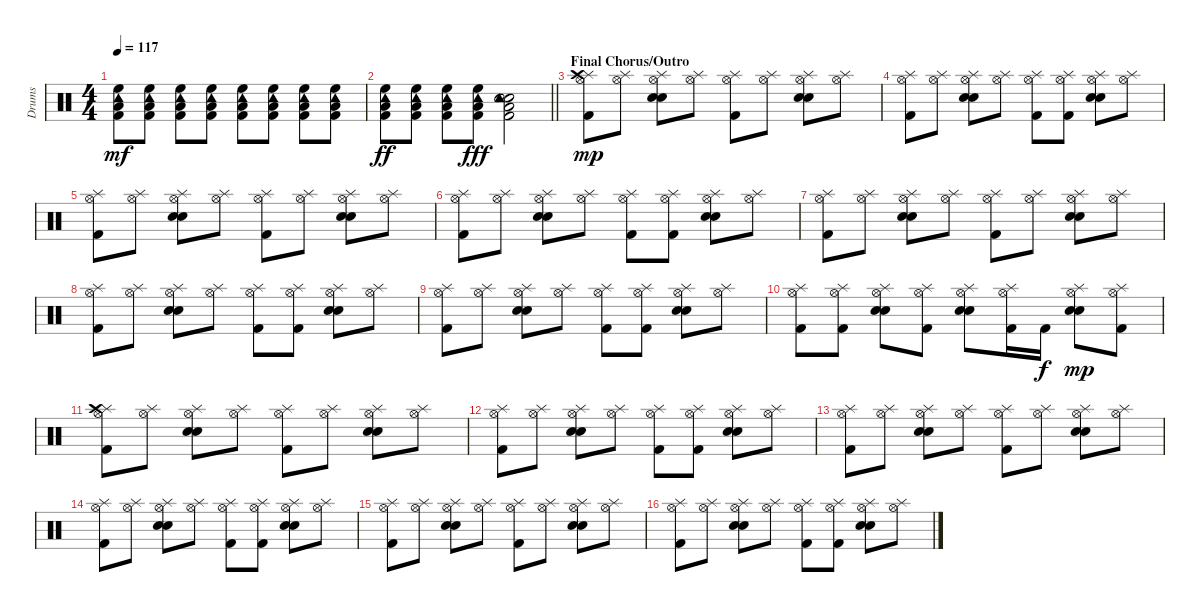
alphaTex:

\track ("Drums" "Drums") {instrument percussion}
\staff {score}
\articulation defaults
\ts (4 4)
\tempo 117
\clef neutral
\ks c
("High Floor Tom (hit)" "Tambourine (hit)" "Low Tom (hit)" "Kick (hit) 2").8{dy mf} ("High Floor Tom (hit)" "Tambourine (hit)" "Low Tom (hit)" "Kick (hit) 2").8 ("High Floor Tom (hit)" "Tambourine (hit)" "Low Tom (hit)" "Kick (hit) 2").8 ("High Floor Tom (hit)" "Tambourine (hit)" "Low Tom (hit)" "Kick (hit) 2").8 ("High Floor Tom (hit)" "Tambourine (hit)" "Low Tom (hit)" "Kick (hit) 2").8 ("High Floor Tom (hit)" "Tambourine (hit)" "Low Tom (hit)" "Kick (hit) 2").8 ("High Floor Tom (hit)" "Tambourine (hit)" "Low Tom (hit)" "Kick (hit) 2").8 ("High Floor Tom (hit)" "Tambourine (hit)" "Low Tom (hit)" "Kick (hit) 2").8 |
\barLineRight lightlight
("High Floor Tom (hit)" "Tambourine (hit)" "Low Tom (hit)" "Kick (hit) 2").8{dy ff} ("High Floor Tom (hit)" "Tambourine (hit)" "Low Tom (hit)" "Kick (hit) 2").8 ("High Floor Tom (hit)" "Tambourine (hit)" "Low Tom (hit)" "Kick (hit) 2").8 ("High Floor Tom (hit)" "Tambourine (hit)" "Low Tom (hit)" "Kick (hit) 2").8{dy fff} ("Snare (hit) 2" "Tambourine (hit)" "Low Tom (hit)" "Electric Snare (hit)" "Kick (hit) 2").2 |
\section ("" "Final Chorus/Outro")
("Splash (hit)" "Crash high (hit)" "Hi-Hat (open)" "Kick (hit) 2").8{dy mp} ("Splash (hit)" "Hi-Hat (open)").8 ("Splash (hit)" "Hi-Hat (open)" "Electric Snare (hit)" "Snare (hit) 2").8 ("Splash (hit)" "Hi-Hat (open)").8 ("Splash (hit)" "Hi-Hat (open)" "Kick (hit) 2").8 ("Splash (hit)" "Hi-Hat (open)").8 ("Splash (hit)" "Hi-Hat (open)" "Electric Snare (hit)" "Snare (hit) 2").8 ("Splash (hit)" "Hi-Hat (open)").8 |
("Splash (hit)" "Hi-Hat (open)" "Kick (hit) 2").8 ("Splash (hit)" "Hi-Hat (open)").8 ("Splash (hit)" "Hi-Hat (open)" "Electric Snare (hit)" "Snare (hit) 2").8 ("Splash (hit)" "Hi-Hat (open)").8 ("Splash (hit)" "Hi-Hat (open)" "Kick (hit) 2").8 ("Splash (hit)" "Hi-Hat (open)" "Kick (hit) 2").8 ("Splash (hit)" "Hi-Hat (open)" "Electric Snare (hit)" "Snare (hit) 2").8 ("Splash (hit)" "Hi-Hat (open)").8 |
("Splash (hit)" "Hi-Hat (open)" "Kick (hit) 2").8 ("Splash (hit)" "Hi-Hat (open)").8 ("Splash (hit)" "Hi-Hat (open)" "Electric Snare (hit)" "Snare (hit) 2").8 ("Splash (hit)" "Hi-Hat (open)").8 ("Splash (hit)" "Hi-Hat (open)" "Kick (hit) 2").8 ("Splash (hit)" "Hi-Hat (open)").8 ("Splash (hit)" "Hi-Hat (open)" "Electric Snare (hit)" "Snare (hit) 2").8 ("Splash (hit)" "Hi-Hat (open)").8 |
("Splash (hit)" "Hi-Hat (open)" "Kick (hit) 2").8 ("Splash (hit)" "Hi-Hat (open)").8 ("Splash (hit)" "Hi-Hat (open)" "Electric Snare (hit)" "Snare (hit) 2").8 ("Splash (hit)" "Hi-Hat (open)").8 ("Splash (hit)" "Hi-Hat (open)" "Kick (hit) 2").8 ("Splash (hit)" "Hi-Hat (open)" "Kick (hit) 2").8 ("Splash (hit)" "Hi-Hat (open)" "Electric Snare (hit)" "Snare (hit) 2").8 ("Splash (hit)" "Hi-Hat (open)").8 |
("Splash (hit)" "Hi-Hat (open)" "Kick (hit) 2").8 ("Splash (hit)" "Hi-Hat (open)").8 ("Splash (hit)" "Hi-Hat (open)" "Electric Snare (hit)" "Snare (hit) 2").8 ("Splash (hit)" "Hi-Hat (open)").8 ("Splash (hit)" "Hi-Hat (open)" "Kick (hit) 2").8 ("Splash (hit)" "Hi-Hat (open)").8 ("Splash (hit)" "Hi-Hat (open)" "Electric Snare (hit)" "Snare (hit) 2").8 ("Splash (hit)" "Hi-Hat (open)").8 |
("Splash (hit)" "Hi-Hat (open)" "Kick (hit) 2").8 ("Splash (hit)" "Hi-Hat (open)").8 ("Splash (hit)" "Hi-Hat (open)" "Electric Snare (hit)" "Snare (hit) 2").8 ("Splash (hit)" "Hi-Hat (open)").8 ("Splash (hit)" "Hi-Hat (open)" "Kick (hit) 2").8 ("Splash (hit)" "Hi-Hat (open)" "Kick (hit) 2").8 ("Splash (hit)" "Hi-Hat (open)" "Electric Snare (hit)" "Snare (hit) 2").8 ("Splash (hit)" "Hi-Hat (open)").8 |
("Splash (hit)" "Hi-Hat (open)" "Kick (hit) 2").8 ("Splash (hit)" "Hi-Hat (open)").8 ("Splash (hit)" "Hi-Hat (open)" "Electric Snare (hit)" "Snare (hit) 2").8 ("Splash (hit)" "Hi-Hat (open)").8 ("Splash (hit)" "Hi-Hat (open)" "Kick (hit) 2").8 ("Splash (hit)" "Hi-Hat (open)" "Kick (hit) 2").8 ("Splash (hit)" "Hi-Hat (open)" "Electric Snare (hit)" "Snare (hit) 2").8 ("Splash (hit)" "Hi-Hat (open)").8 |
("Splash (hit)" "Hi-Hat (open)" "Kick (hit) 2").8 ("Splash (hit)" "Hi-Hat (open)" "Kick (hit) 2").8 ("Splash (hit)" "Hi-Hat (open)" "Electric Snare (hit)" "Snare (hit) 2").8 ("Splash (hit)" "Hi-Hat (open)" "Kick (hit) 2").8 ("Splash (hit)" "Hi-Hat (open)" "Electric Snare (hit)" "Snare (hit) 2").8 ("Splash (hit)" "Hi-Hat (open)" "Kick (hit) 2").16 "Kick (hit) 2".16{dy f} ("Splash (hit)" "Hi-Hat (open)" "Electric Snare (hit)" "Snare (hit) 2").8{dy mp} ("Splash (hit)" "Hi-Hat (open)" "Kick (hit) 2").8 |
("Splash (hit)" "Crash high (hit)" "Hi-Hat (open)" "Kick (hit) 2").8 ("Splash (hit)" "Hi-Hat (open)").8 ("Splash (hit)" "Hi-Hat (open)" "Electric Snare (hit)" "Snare (hit) 2").8 ("Splash (hit)" "Hi-Hat (open)").8 ("Splash (hit)" "Hi-Hat (open)" "Kick (hit) 2").8 ("Splash (hit)" "Hi-Hat (open)").8 ("Splash (hit)" "Hi-Hat (open)" "Electric Snare (hit)" "Snare (hit) 2").8 ("Splash (hit)" "Hi-Hat (open)").8 |
("Splash (hit)" "Hi-Hat (open)" "Kick (hit) 2").8 ("Splash (hit)" "Hi-Hat (open)").8 ("Splash (hit)" "Hi-Hat (open)" "Electric Snare (hit)" "Snare (hit) 2").8 ("Splash (hit)" "Hi-Hat (open)").8 ("Splash (hit)" "Hi-Hat (open)" "Kick (hit) 2").8 ("Splash (hit)" "Hi-Hat (open)" "Kick (hit) 2").8 ("Splash (hit)" "Hi-Hat (open)" "Electric Snare (hit)" "Snare (hit) 2").8 ("Splash (hit)" "Hi-Hat (open)").8 |
("Splash (hit)" "Hi-Hat (open)" "Kick (hit) 2").8 ("Splash (hit)" "Hi-Hat (open)").8 ("Splash (hit)" "Hi-Hat (open)" "Electric Snare (hit)" "Snare (hit) 2").8 ("Splash (hit)" "Hi-Hat (open)").8 ("Splash (hit)" "Hi-Hat (open)" "Kick (hit) 2").8 ("Splash (hit)" "Hi-Hat (open)").8 ("Splash (hit)" "Hi-Hat (open)" "Electric Snare (hit)" "Snare (hit) 2").8 ("Splash (hit)" "Hi-Hat (open)").8 |
("Splash (hit)" "Hi-Hat (open)" "Kick (hit) 2").8 ("Splash (hit)" "Hi-Hat (open)").8 ("Splash (hit)" "Hi-Hat (open)" "Electric Snare (hit)" "Snare (hit) 2").8 ("Splash (hit)" "Hi-Hat (open)").8 ("Splash (hit)" "Hi-Hat (open)" "Kick (hit) 2").8 ("Splash (hit)" "Hi-Hat (open)" "Kick (hit) 2").8 ("Splash (hit)" "Hi-Hat (open)" "Electric Snare (hit)" "Snare (hit) 2").8 ("Splash (hit)" "Hi-Hat (open)").8 |
("Splash (hit)" "Hi-Hat (open)" "Kick (hit) 2").8 ("Splash (hit)" "Hi-Hat (open)").8 ("Splash (hit)" "Hi-Hat (open)" "Electric Snare (hit)" "Snare (hit) 2").8 ("Splash (hit)" "Hi-Hat (open)").8 ("Splash (hit)" "Hi-Hat (open)" "Kick (hit) 2").8 ("Splash (hit)" "Hi-Hat (open)").8 ("Splash (hit)" "Hi-Hat (open)" "Electric Snare (hit)" "Snare (hit) 2").8 ("Splash (hit)" "Hi-Hat (open)").8 |
("Splash (hit)" "Hi-Hat (open)" "Kick (hit) 2").8 ("Splash (hit)" "Hi-Hat (open)").8 ("Splash (hit)" "Hi-Hat (open)" "Electric Snare (hit)" "Snare (hit) 2").8 ("Splash (hit)" "Hi-Hat (open)").8 ("Splash (hit)" "Hi-Hat (open)" "Kick (hit) 2").8 ("Splash (hit)" "Hi-Hat (open)" "Kick (hit) 2").8 ("Splash (hit)" "Hi-Hat (open)" "Electric Snare (hit)" "Snare (hit) 2").8 ("Splash (hit)" "Hi-Hat (open)").8
